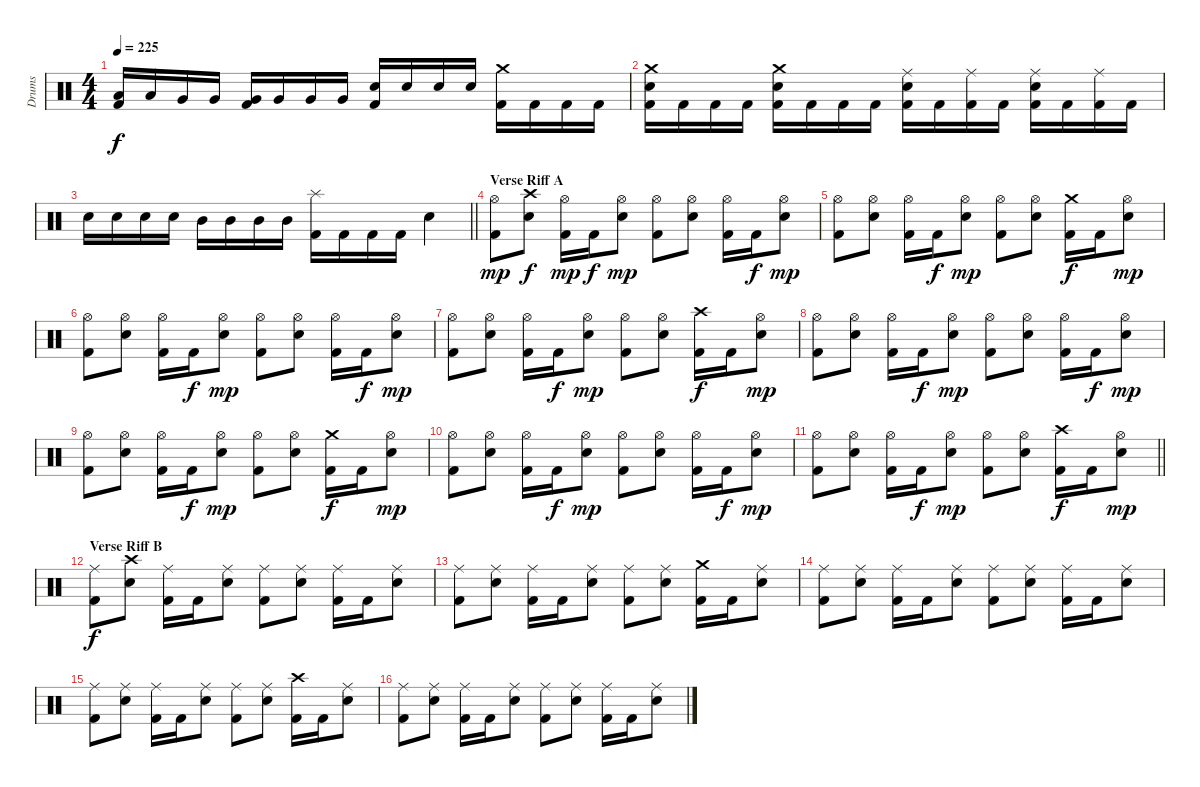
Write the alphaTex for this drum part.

\track ("Drums" "Drums") {instrument percussion}
\staff {score}
\articulation defaults
\ts (4 4)
\tempo 225
\clef neutral
\ks c
("Low Tom (hit)" "Kick (hit) 2").16{dy f} "Low Tom (hit)".16 "Very Low Tom (hit)".16 "Very Low Tom (hit)".16 ("Very Low Tom (hit)" "Kick (hit) 2").16 "Very Low Tom (hit)".16 "Very Low Tom (hit)".16 "Very Low Tom (hit)".16 ("Snare (hit) 2" "Kick (hit) 2").16 "Snare (hit) 2".16 "Snare (hit) 2".16 "Snare (hit) 2".16 ("Crash medium (hit)" "Kick (hit) 2").16 "Kick (hit) 2".16 "Kick (hit) 2".16 "Kick (hit) 2".16 |
("Crash medium (hit)" "Snare (hit) 2" "Kick (hit) 2").16 "Kick (hit) 2".16 "Kick (hit) 2".16 "Kick (hit) 2".16 ("Crash medium (hit)" "Snare (hit) 2" "Kick (hit) 2").16 "Kick (hit) 2".16 "Kick (hit) 2".16 "Kick (hit) 2".16 ("Ride (middle)" "Snare (hit) 2" "Kick (hit) 2").16 "Kick (hit) 2".16 ("Ride (middle)" "Kick (hit) 2").16 "Kick (hit) 2".16 ("Ride (middle)" "Snare (hit) 2" "Kick (hit) 2").16 "Kick (hit) 2".16 ("Ride (middle)" "Kick (hit) 2").16 "Kick (hit) 2".16 |
\barLineRight lightlight "Snare (hit) 2".16 "Snare (hit) 2".16 "Snare (hit) 2".16 "Snare (hit) 2".16 "Mid Tom (hit)".16 "Mid Tom (hit)".16 "Mid Tom (hit)".16 "Mid Tom (hit)".16
("Splash (hit)" "Kick (hit) 2").16 "Kick (hit) 2".16 "Kick (hit) 2".16 "Kick (hit) 2".16 "Snare (hit) 2".4 |
\section ("" "Verse Riff A")
("Hi-Hat (open)" "Kick (hit) 2").8{dy mp} ("Crash high (hit)" "Snare (hit) 2").8{dy f} ("Hi-Hat (open)" "Kick (hit) 2").16{dy mp} "Kick (hit) 2".16{dy f} ("Hi-Hat (open)" "Snare (hit) 2").8{dy mp} ("Hi-Hat (open)" "Kick (hit) 2").8 ("Hi-Hat (open)" "Snare (hit) 2").8 ("Hi-Hat (open)" "Kick (hit) 2").16 "Kick (hit) 2".16{dy f} ("Hi-Hat (open)" "Snare (hit) 2").8{dy mp} |
("Hi-Hat (open)" "Kick (hit) 2").8 ("Hi-Hat (open)" "Snare (hit) 2").8 ("Hi-Hat (open)" "Kick (hit) 2").16 "Kick (hit) 2".16{dy f} ("Hi-Hat (open)" "Snare (hit) 2").8{dy mp} ("Hi-Hat (open)" "Kick (hit) 2").8 ("Hi-Hat (open)" "Snare (hit) 2").8 ("Crash medium (hit)" "Kick (hit) 2").16{dy f} "Kick (hit) 2".16 ("Hi-Hat (open)" "Snare (hit) 2").8{dy mp} |
("Hi-Hat (open)" "Kick (hit) 2").8 ("Hi-Hat (open)" "Snare (hit) 2").8 ("Hi-Hat (open)" "Kick (hit) 2").16 "Kick (hit) 2".16{dy f} ("Hi-Hat (open)" "Snare (hit) 2").8{dy mp} ("Hi-Hat (open)" "Kick (hit) 2").8 ("Hi-Hat (open)" "Snare (hit) 2").8 ("Hi-Hat (open)" "Kick (hit) 2").16 "Kick (hit) 2".16{dy f} ("Hi-Hat (open)" "Snare (hit) 2").8{dy mp} |
("Hi-Hat (open)" "Kick (hit) 2").8 ("Hi-Hat (open)" "Snare (hit) 2").8 ("Hi-Hat (open)" "Kick (hit) 2").16 "Kick (hit) 2".16{dy f} ("Hi-Hat (open)" "Snare (hit) 2").8{dy mp} ("Hi-Hat (open)" "Kick (hit) 2").8 ("Hi-Hat (open)" "Snare (hit) 2").8 ("Crash high (hit)" "Kick (hit) 2").16{dy f} "Kick (hit) 2".16 ("Hi-Hat (open)" "Snare (hit) 2").8{dy mp} |
("Hi-Hat (open)" "Kick (hit) 2").8 ("Hi-Hat (open)" "Snare (hit) 2").8 ("Hi-Hat (open)" "Kick (hit) 2").16 "Kick (hit) 2".16{dy f} ("Hi-Hat (open)" "Snare (hit) 2").8{dy mp} ("Hi-Hat (open)" "Kick (hit) 2").8 ("Hi-Hat (open)" "Snare (hit) 2").8 ("Hi-Hat (open)" "Kick (hit) 2").16 "Kick (hit) 2".16{dy f} ("Hi-Hat (open)" "Snare (hit) 2").8{dy mp} |
("Hi-Hat (open)" "Kick (hit) 2").8 ("Hi-Hat (open)" "Snare (hit) 2").8 ("Hi-Hat (open)" "Kick (hit) 2").16 "Kick (hit) 2".16{dy f} ("Hi-Hat (open)" "Snare (hit) 2").8{dy mp} ("Hi-Hat (open)" "Kick (hit) 2").8 ("Hi-Hat (open)" "Snare (hit) 2").8 ("Crash medium (hit)" "Kick (hit) 2").16{dy f} "Kick (hit) 2".16 ("Hi-Hat (open)" "Snare (hit) 2").8{dy mp} |
("Hi-Hat (open)" "Kick (hit) 2").8 ("Hi-Hat (open)" "Snare (hit) 2").8 ("Hi-Hat (open)" "Kick (hit) 2").16 "Kick (hit) 2".16{dy f} ("Hi-Hat (open)" "Snare (hit) 2").8{dy mp} ("Hi-Hat (open)" "Kick (hit) 2").8 ("Hi-Hat (open)" "Snare (hit) 2").8 ("Hi-Hat (open)" "Kick (hit) 2").16 "Kick (hit) 2".16{dy f} ("Hi-Hat (open)" "Snare (hit) 2").8{dy mp} |
\barLineRight lightlight
("Hi-Hat (open)" "Kick (hit) 2").8 ("Hi-Hat (open)" "Snare (hit) 2").8 ("Hi-Hat (open)" "Kick (hit) 2").16 "Kick (hit) 2".16{dy f} ("Hi-Hat (open)" "Snare (hit) 2").8{dy mp} ("Hi-Hat (open)" "Kick (hit) 2").8 ("Hi-Hat (open)" "Snare (hit) 2").8 ("Crash high (hit)" "Kick (hit) 2").16{dy f} "Kick (hit) 2".16 ("Hi-Hat (open)" "Snare (hit) 2").8{dy mp} |
\section ("" "Verse Riff B")
("Ride (middle)" "Kick (hit) 2").8{dy f} ("Crash high (hit)" "Snare (hit) 2").8 ("Ride (middle)" "Kick (hit) 2").16 "Kick (hit) 2".16 ("Ride (middle)" "Snare (hit) 2").8 ("Ride (middle)" "Kick (hit) 2").8 ("Ride (middle)" "Snare (hit) 2").8 ("Ride (middle)" "Kick (hit) 2").16 "Kick (hit) 2".16 ("Ride (middle)" "Snare (hit) 2").8 |
("Ride (middle)" "Kick (hit) 2").8 ("Ride (middle)" "Snare (hit) 2").8 ("Ride (middle)" "Kick (hit) 2").16 "Kick (hit) 2".16 ("Ride (middle)" "Snare (hit) 2").8 ("Ride (middle)" "Kick (hit) 2").8 ("Ride (middle)" "Snare (hit) 2").8 ("Crash medium (hit)" "Kick (hit) 2").16 "Kick (hit) 2".16 ("Ride (middle)" "Snare (hit) 2").8 |
("Ride (middle)" "Kick (hit) 2").8 ("Ride (middle)" "Snare (hit) 2").8 ("Ride (middle)" "Kick (hit) 2").16 "Kick (hit) 2".16 ("Ride (middle)" "Snare (hit) 2").8 ("Ride (middle)" "Kick (hit) 2").8 ("Ride (middle)" "Snare (hit) 2").8 ("Ride (middle)" "Kick (hit) 2").16 "Kick (hit) 2".16 ("Ride (middle)" "Snare (hit) 2").8 |
("Ride (middle)" "Kick (hit) 2").8 ("Ride (middle)" "Snare (hit) 2").8 ("Ride (middle)" "Kick (hit) 2").16 "Kick (hit) 2".16 ("Ride (middle)" "Snare (hit) 2").8 ("Ride (middle)" "Kick (hit) 2").8 ("Ride (middle)" "Snare (hit) 2").8 ("Crash high (hit)" "Kick (hit) 2").16 "Kick (hit) 2".16 ("Ride (middle)" "Snare (hit) 2").8 |
("Ride (middle)" "Kick (hit) 2").8 ("Ride (middle)" "Snare (hit) 2").8 ("Ride (middle)" "Kick (hit) 2").16 "Kick (hit) 2".16 ("Ride (middle)" "Snare (hit) 2").8 ("Ride (middle)" "Kick (hit) 2").8 ("Ride (middle)" "Snare (hit) 2").8 ("Ride (middle)" "Kick (hit) 2").16 "Kick (hit) 2".16 ("Ride (middle)" "Snare (hit) 2").8
